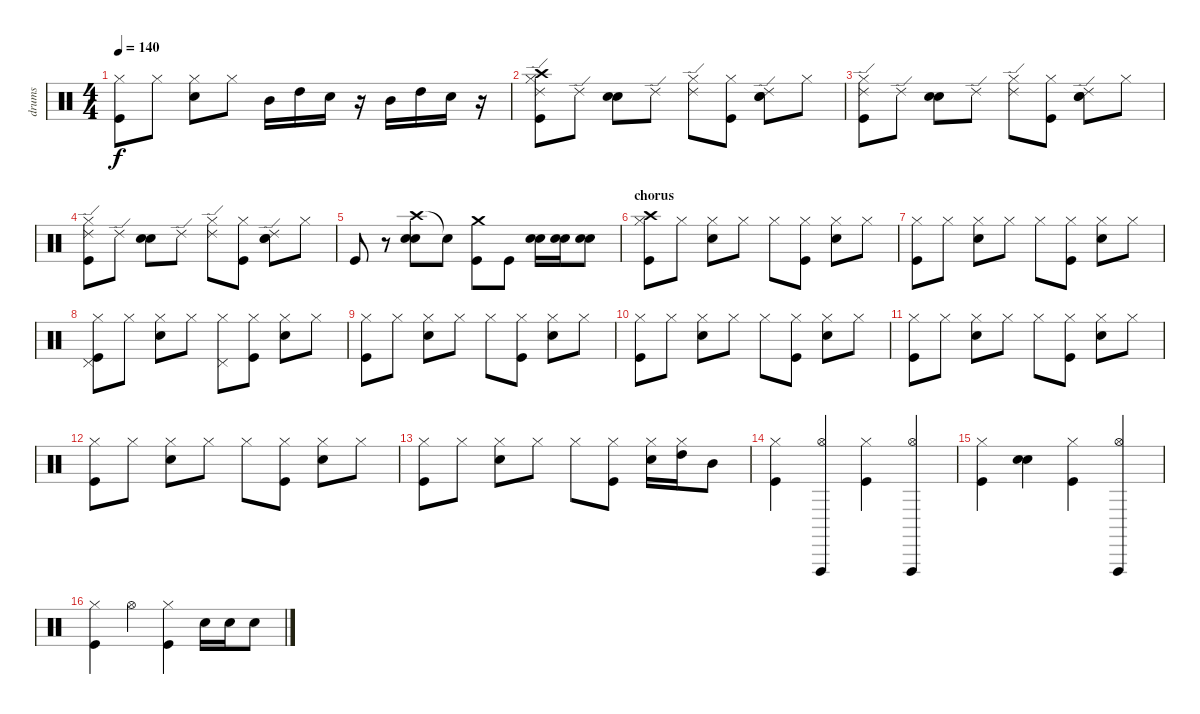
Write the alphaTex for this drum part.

\track ("drums" "drums") {instrument percussion}
\staff {score}
\articulation defaults
\ts (4 4)
\tempo 140
\clef neutral
\ks c
("Hi-Hat (closed)" "Kick (hit)").8{dy f} "Hi-Hat (closed)".8 ("Hi-Hat (closed)" "Snare (hit) 2").8 "Hi-Hat (closed)".8 "Mid Tom (hit)".16 "High Tom (hit)".16 "Snare (hit) 2".16 r.16 "Mid Tom (hit)".16 "High Tom (hit)".16 "Snare (hit) 2".16 r.16 |
("Crash high (hit)" "Ride (edge) 2" "Hi-Hat (closed)" "Kick (hit)").8 "Ride (edge) 2".8 ("Snare (hit) 2" "Electric Snare (hit)").8 "Ride (edge) 2".8 ("Ride (edge) 2" "Hi-Hat (closed)").8 ("Hi-Hat (closed)" "Kick (hit)").8 ("Ride (edge) 2" "Snare (hit) 2" "Electric Snare (hit)").8 "Hi-Hat (closed)".8 |
("Ride (edge) 2" "Hi-Hat (closed)" "Kick (hit)").8 "Ride (edge) 2".8 ("Snare (hit) 2" "Electric Snare (hit)").8 "Ride (edge) 2".8 ("Ride (edge) 2" "Hi-Hat (closed)").8 ("Hi-Hat (closed)" "Kick (hit)").8 ("Ride (edge) 2" "Snare (hit) 2" "Electric Snare (hit)").8 "Hi-Hat (closed)".8 |
("Ride (edge) 2" "Hi-Hat (closed)" "Kick (hit)").8 "Ride (edge) 2".8 ("Snare (hit) 2" "Electric Snare (hit)").8 "Ride (edge) 2".8 ("Ride (edge) 2" "Hi-Hat (closed)").8 ("Hi-Hat (closed)" "Kick (hit)").8 ("Ride (edge) 2" "Snare (hit) 2" "Electric Snare (hit)").8 "Hi-Hat (closed)".8 |
"Kick (hit)".8 r.8 ("Crash high (hit)" "Snare (hit) 2" "Electric Snare (hit)").8 "Snare (hit)"{t}.8 ("Crash medium (hit)" "Kick (hit)").8 "Kick (hit)".8 ("Snare (hit) 2" "Electric Snare (hit)").16 ("Snare (hit) 2" "Electric Snare (hit)").16 ("Snare (hit) 2" "Electric Snare (hit)").8 |
\section ("" "chorus")
("Crash high (hit)" "Hi-Hat (closed)" "Kick (hit)").8 "Hi-Hat (closed)".8 ("Hi-Hat (closed)" "Snare (hit) 2").8 "Hi-Hat (closed)".8 "Hi-Hat (closed)".8 ("Hi-Hat (closed)" "Kick (hit)").8 ("Hi-Hat (closed)" "Snare (hit) 2").8 "Hi-Hat (closed)".8 |
("Hi-Hat (closed)" "Kick (hit)").8 "Hi-Hat (closed)".8 ("Hi-Hat (closed)" "Snare (hit) 2").8 "Hi-Hat (closed)".8 "Hi-Hat (closed)".8 ("Hi-Hat (closed)" "Kick (hit)").8 ("Hi-Hat (closed)" "Snare (hit) 2").8 "Hi-Hat (closed)".8 |
("Pedal Hi-Hat (hit)" "Hi-Hat (closed)" "Kick (hit)").8 "Hi-Hat (closed)".8 ("Hi-Hat (closed)" "Snare (hit) 2").8 "Hi-Hat (closed)".8 ("Pedal Hi-Hat (hit)" "Hi-Hat (closed)").8 ("Hi-Hat (closed)" "Kick (hit)").8 ("Hi-Hat (closed)" "Snare (hit) 2").8 "Hi-Hat (closed)".8 |
("Hi-Hat (closed)" "Kick (hit)").8 "Hi-Hat (closed)".8 ("Hi-Hat (closed)" "Snare (hit) 2").8 "Hi-Hat (closed)".8 "Hi-Hat (closed)".8 ("Hi-Hat (closed)" "Kick (hit)").8 ("Hi-Hat (closed)" "Snare (hit) 2").8 "Hi-Hat (closed)".8 |
("Hi-Hat (closed)" "Kick (hit)").8 "Hi-Hat (closed)".8 ("Hi-Hat (closed)" "Snare (hit) 2").8 "Hi-Hat (closed)".8 "Hi-Hat (closed)".8 ("Hi-Hat (closed)" "Kick (hit)").8 ("Hi-Hat (closed)" "Snare (hit) 2").8 "Hi-Hat (closed)".8 |
("Hi-Hat (closed)" "Kick (hit)").8 "Hi-Hat (closed)".8 ("Hi-Hat (closed)" "Snare (hit) 2").8 "Hi-Hat (closed)".8 "Hi-Hat (closed)".8 ("Hi-Hat (closed)" "Kick (hit)").8 ("Hi-Hat (closed)" "Snare (hit) 2").8 "Hi-Hat (closed)".8 |
("Hi-Hat (closed)" "Kick (hit)").8 "Hi-Hat (closed)".8 ("Hi-Hat (closed)" "Snare (hit) 2").8 "Hi-Hat (closed)".8 "Hi-Hat (closed)".8 ("Hi-Hat (closed)" "Kick (hit)").8 ("Hi-Hat (closed)" "Snare (hit) 2").8 "Hi-Hat (closed)".8 |
("Hi-Hat (closed)" "Kick (hit)").8 "Hi-Hat (closed)".8 ("Hi-Hat (closed)" "Snare (hit) 2").8 "Hi-Hat (closed)".8 "Hi-Hat (closed)".8 ("Hi-Hat (closed)" "Kick (hit)").8 ("Hi-Hat (closed)" "Snare (hit) 2").16 ("Hi-Hat (closed)" "High Tom (hit)").16 "Mid Tom (hit)".8 |
("Hi-Hat (closed)" "Kick (hit)").4 ("Vibraslap (hit)" "Hi-Hat (open)").4 ("Hi-Hat (closed)" "Kick (hit)").4 ("Vibraslap (hit)" "Hi-Hat (open)").4 |
("Hi-Hat (closed)" "Kick (hit)").4 ("Snare (hit) 2" "Electric Snare (hit)").4 ("Hi-Hat (closed)" "Kick (hit)").4 ("Vibraslap (hit)" "Hi-Hat (open)").4 |
("Hi-Hat (closed)" "Kick (hit)").4 "Hi-Hat (open)".4 ("Hi-Hat (closed)" "Kick (hit)").4 "Snare (hit) 2".16 "Snare (hit) 2".16 "Snare (hit) 2".8
